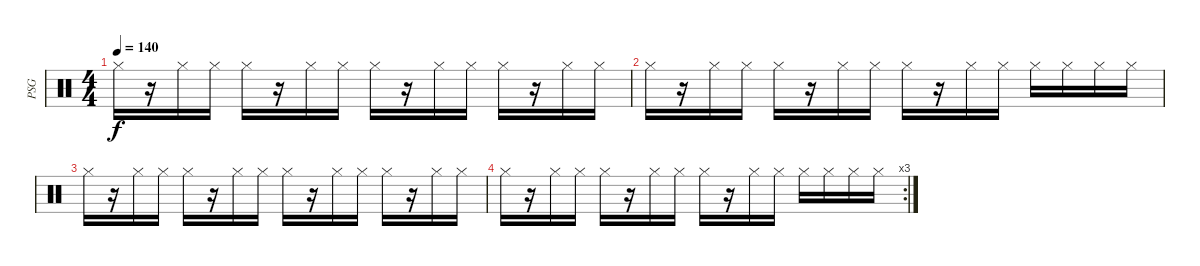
\track ("PSG" "PSG") {instrument percussion}
\staff {score}
\articulation defaults
\ts (4 4)
\tempo 140
\clef neutral
\ks c "Hi-Hat (closed)".16{dy f}
r.16 "Hi-Hat (closed)".16 "Hi-Hat (closed)".16 "Hi-Hat (closed)".16 r.16 "Hi-Hat (closed)".16 "Hi-Hat (closed)".16 "Hi-Hat (closed)".16 r.16 "Hi-Hat (closed)".16 "Hi-Hat (closed)".16 "Hi-Hat (closed)".16 r.16 "Hi-Hat (closed)".16 "Hi-Hat (closed)".16 |
"Hi-Hat (closed)".16 r.16 "Hi-Hat (closed)".16 "Hi-Hat (closed)".16 "Hi-Hat (closed)".16 r.16 "Hi-Hat (closed)".16 "Hi-Hat (closed)".16 "Hi-Hat (closed)".16 r.16 "Hi-Hat (closed)".16 "Hi-Hat (closed)".16 "Hi-Hat (closed)".16 "Hi-Hat (closed)".16 "Hi-Hat (closed)".16 "Hi-Hat (closed)".16 |
"Hi-Hat (closed)".16 r.16 "Hi-Hat (closed)".16 "Hi-Hat (closed)".16 "Hi-Hat (closed)".16 r.16 "Hi-Hat (closed)".16 "Hi-Hat (closed)".16 "Hi-Hat (closed)".16 r.16 "Hi-Hat (closed)".16 "Hi-Hat (closed)".16 "Hi-Hat (closed)".16 r.16 "Hi-Hat (closed)".16 "Hi-Hat (closed)".16 |
\rc 3 "Hi-Hat (closed)".16
r.16 "Hi-Hat (closed)".16 "Hi-Hat (closed)".16 "Hi-Hat (closed)".16 r.16 "Hi-Hat (closed)".16 "Hi-Hat (closed)".16 "Hi-Hat (closed)".16 r.16 "Hi-Hat (closed)".16 "Hi-Hat (closed)".16 "Hi-Hat (closed)".16 "Hi-Hat (closed)".16 "Hi-Hat (closed)".16 "Hi-Hat (closed)".16
